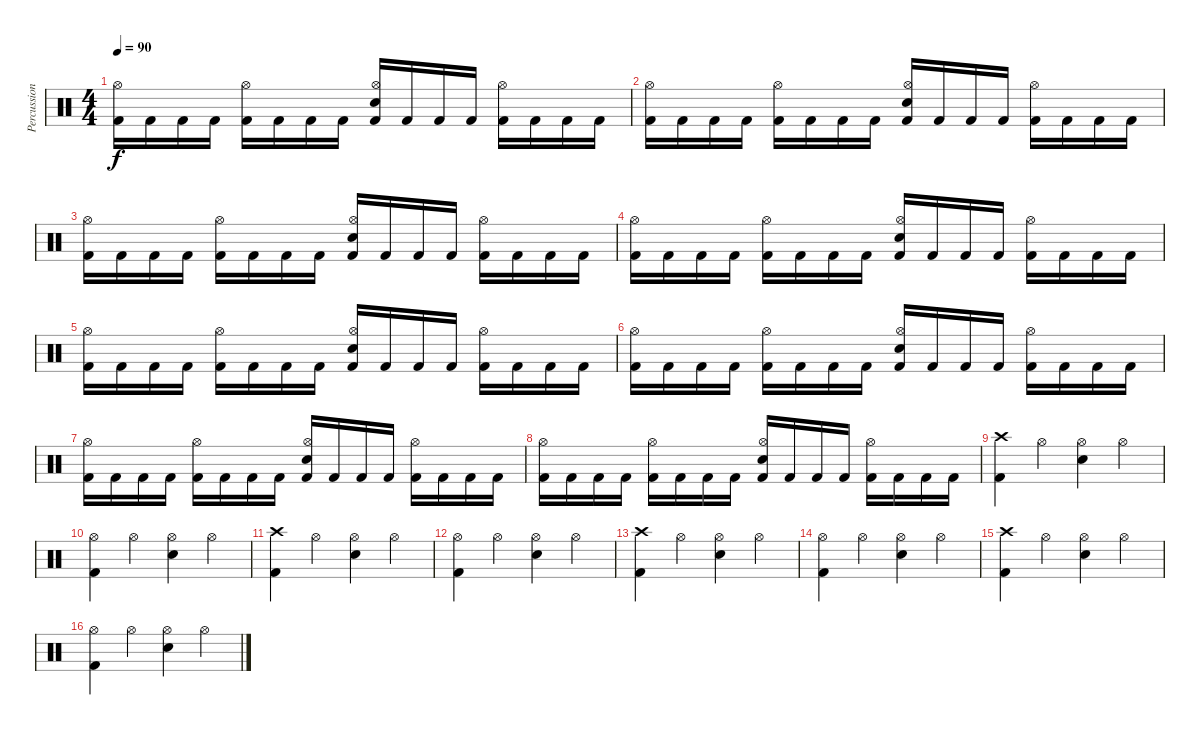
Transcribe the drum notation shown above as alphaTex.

\track ("Percussion" "Percussion") {instrument percussion}
\staff {score}
\articulation defaults
\ts (4 4)
\tempo 90
\clef neutral
\ks c
("Kick (hit) 2" "Hi-Hat (open)").16{dy f} "Kick (hit) 2".16 "Kick (hit) 2".16 "Kick (hit) 2".16 ("Kick (hit) 2" "Hi-Hat (open)").16 "Kick (hit) 2".16 "Kick (hit) 2".16 "Kick (hit) 2".16 ("Kick (hit) 2" "Hi-Hat (open)" "Electric Snare (hit)").16 "Kick (hit) 2".16 "Kick (hit) 2".16 "Kick (hit) 2".16 ("Kick (hit) 2" "Hi-Hat (open)").16 "Kick (hit) 2".16 "Kick (hit) 2".16 "Kick (hit) 2".16 |
("Kick (hit) 2" "Hi-Hat (open)").16 "Kick (hit) 2".16 "Kick (hit) 2".16 "Kick (hit) 2".16 ("Kick (hit) 2" "Hi-Hat (open)").16 "Kick (hit) 2".16 "Kick (hit) 2".16 "Kick (hit) 2".16 ("Kick (hit) 2" "Hi-Hat (open)" "Electric Snare (hit)").16 "Kick (hit) 2".16 "Kick (hit) 2".16 "Kick (hit) 2".16 ("Kick (hit) 2" "Hi-Hat (open)").16 "Kick (hit) 2".16 "Kick (hit) 2".16 "Kick (hit) 2".16 |
("Kick (hit) 2" "Hi-Hat (open)").16 "Kick (hit) 2".16 "Kick (hit) 2".16 "Kick (hit) 2".16 ("Kick (hit) 2" "Hi-Hat (open)").16 "Kick (hit) 2".16 "Kick (hit) 2".16 "Kick (hit) 2".16 ("Kick (hit) 2" "Hi-Hat (open)" "Electric Snare (hit)").16 "Kick (hit) 2".16 "Kick (hit) 2".16 "Kick (hit) 2".16 ("Kick (hit) 2" "Hi-Hat (open)").16 "Kick (hit) 2".16 "Kick (hit) 2".16 "Kick (hit) 2".16 |
("Kick (hit) 2" "Hi-Hat (open)").16 "Kick (hit) 2".16 "Kick (hit) 2".16 "Kick (hit) 2".16 ("Kick (hit) 2" "Hi-Hat (open)").16 "Kick (hit) 2".16 "Kick (hit) 2".16 "Kick (hit) 2".16 ("Kick (hit) 2" "Hi-Hat (open)" "Electric Snare (hit)").16 "Kick (hit) 2".16 "Kick (hit) 2".16 "Kick (hit) 2".16 ("Kick (hit) 2" "Hi-Hat (open)").16 "Kick (hit) 2".16 "Kick (hit) 2".16 "Kick (hit) 2".16 |
("Kick (hit) 2" "Hi-Hat (open)").16 "Kick (hit) 2".16 "Kick (hit) 2".16 "Kick (hit) 2".16 ("Kick (hit) 2" "Hi-Hat (open)").16 "Kick (hit) 2".16 "Kick (hit) 2".16 "Kick (hit) 2".16 ("Kick (hit) 2" "Hi-Hat (open)" "Electric Snare (hit)").16 "Kick (hit) 2".16 "Kick (hit) 2".16 "Kick (hit) 2".16 ("Kick (hit) 2" "Hi-Hat (open)").16 "Kick (hit) 2".16 "Kick (hit) 2".16 "Kick (hit) 2".16 |
("Kick (hit) 2" "Hi-Hat (open)").16 "Kick (hit) 2".16 "Kick (hit) 2".16 "Kick (hit) 2".16 ("Kick (hit) 2" "Hi-Hat (open)").16 "Kick (hit) 2".16 "Kick (hit) 2".16 "Kick (hit) 2".16 ("Kick (hit) 2" "Hi-Hat (open)" "Electric Snare (hit)").16 "Kick (hit) 2".16 "Kick (hit) 2".16 "Kick (hit) 2".16 ("Kick (hit) 2" "Hi-Hat (open)").16 "Kick (hit) 2".16 "Kick (hit) 2".16 "Kick (hit) 2".16 |
("Kick (hit) 2" "Hi-Hat (open)").16 "Kick (hit) 2".16 "Kick (hit) 2".16 "Kick (hit) 2".16 ("Kick (hit) 2" "Hi-Hat (open)").16 "Kick (hit) 2".16 "Kick (hit) 2".16 "Kick (hit) 2".16 ("Kick (hit) 2" "Hi-Hat (open)" "Electric Snare (hit)").16 "Kick (hit) 2".16 "Kick (hit) 2".16 "Kick (hit) 2".16 ("Kick (hit) 2" "Hi-Hat (open)").16 "Kick (hit) 2".16 "Kick (hit) 2".16 "Kick (hit) 2".16 |
("Kick (hit) 2" "Hi-Hat (open)").16 "Kick (hit) 2".16 "Kick (hit) 2".16 "Kick (hit) 2".16 ("Kick (hit) 2" "Hi-Hat (open)").16 "Kick (hit) 2".16 "Kick (hit) 2".16 "Kick (hit) 2".16 ("Kick (hit) 2" "Hi-Hat (open)" "Electric Snare (hit)").16 "Kick (hit) 2".16 "Kick (hit) 2".16 "Kick (hit) 2".16 ("Kick (hit) 2" "Hi-Hat (open)").16 "Kick (hit) 2".16 "Kick (hit) 2".16 "Kick (hit) 2".16 |
("Crash high (hit)" "Kick (hit) 2").4 "Hi-Hat (open)".4 ("Hi-Hat (open)" "Electric Snare (hit)").4 "Hi-Hat (open)".4 |
("Hi-Hat (open)" "Kick (hit) 2").4 "Hi-Hat (open)".4 ("Hi-Hat (open)" "Electric Snare (hit)").4 "Hi-Hat (open)".4 |
("Crash high (hit)" "Kick (hit) 2").4 "Hi-Hat (open)".4 ("Hi-Hat (open)" "Electric Snare (hit)").4 "Hi-Hat (open)".4 |
("Hi-Hat (open)" "Kick (hit) 2").4 "Hi-Hat (open)".4 ("Hi-Hat (open)" "Electric Snare (hit)").4 "Hi-Hat (open)".4 |
("Crash high (hit)" "Kick (hit) 2").4 "Hi-Hat (open)".4 ("Hi-Hat (open)" "Electric Snare (hit)").4 "Hi-Hat (open)".4 |
("Hi-Hat (open)" "Kick (hit) 2").4 "Hi-Hat (open)".4 ("Hi-Hat (open)" "Electric Snare (hit)").4 "Hi-Hat (open)".4 |
("Crash high (hit)" "Kick (hit) 2").4 "Hi-Hat (open)".4 ("Hi-Hat (open)" "Electric Snare (hit)").4 "Hi-Hat (open)".4 |
("Hi-Hat (open)" "Kick (hit) 2").4 "Hi-Hat (open)".4 ("Hi-Hat (open)" "Electric Snare (hit)").4 "Hi-Hat (open)".4
